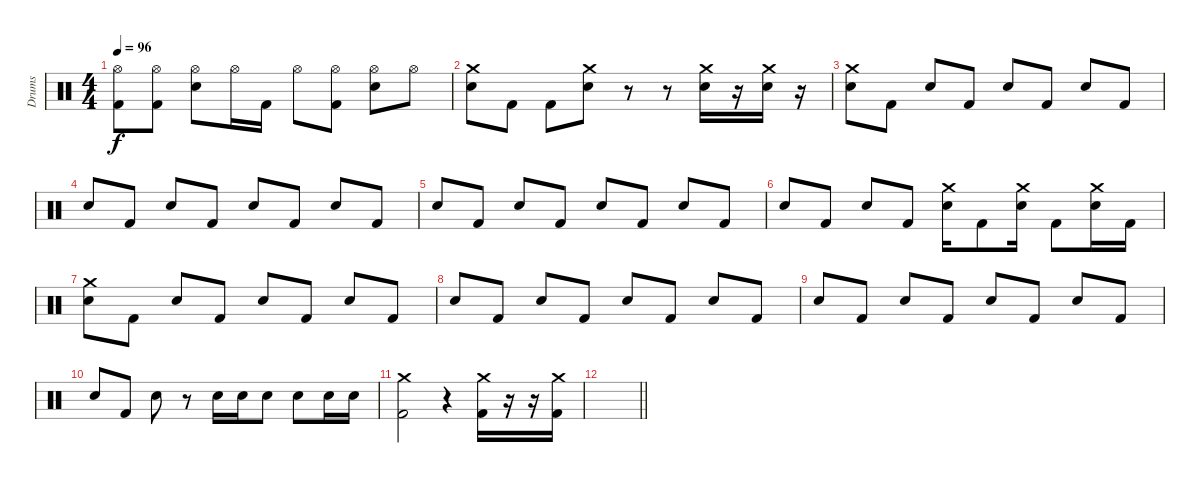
\track ("Drums" "Drums") {instrument percussion}
\staff {score}
\articulation defaults
\ts (4 4)
\tempo 96
\clef neutral
\ks c
("Hi-Hat (open)" "Kick (hit) 2").8{dy f} ("Hi-Hat (open)" "Kick (hit) 2").8 ("Hi-Hat (open)" "Snare (hit) 2").8 "Hi-Hat (open)".16 "Kick (hit) 2".16 "Hi-Hat (open)".8 ("Hi-Hat (open)" "Kick (hit) 2").8 ("Hi-Hat (open)" "Snare (hit) 2").8 "Hi-Hat (open)".8 |
("Crash medium (hit)" "Snare (hit) 2").8 "Kick (hit) 2".8 "Kick (hit) 2".8 ("Crash medium (hit)" "Snare (hit) 2").8 r.8 r.8 ("Crash medium (hit)" "Snare (hit) 2").16 r.16 ("Crash medium (hit)" "Snare (hit) 2").16 r.16 |
("Crash medium (hit)" "Snare (hit) 2").8 "Kick (hit) 2".8 "Snare (hit) 2".8 "Kick (hit) 2".8 "Snare (hit) 2".8 "Kick (hit) 2".8 "Snare (hit) 2".8 "Kick (hit) 2".8 |
"Snare (hit) 2".8 "Kick (hit) 2".8 "Snare (hit) 2".8 "Kick (hit) 2".8 "Snare (hit) 2".8 "Kick (hit) 2".8 "Snare (hit) 2".8 "Kick (hit) 2".8 |
"Snare (hit) 2".8 "Kick (hit) 2".8 "Snare (hit) 2".8 "Kick (hit) 2".8 "Snare (hit) 2".8 "Kick (hit) 2".8 "Snare (hit) 2".8 "Kick (hit) 2".8 |
"Snare (hit) 2".8 "Kick (hit) 2".8 "Snare (hit) 2".8 "Kick (hit) 2".8 ("Crash medium (hit)" "Snare (hit) 2").16 "Kick (hit) 2".8 ("Crash medium (hit)" "Snare (hit) 2").16 "Kick (hit) 2".8 ("Crash medium (hit)" "Snare (hit) 2").16 "Kick (hit) 2".16 |
("Crash medium (hit)" "Snare (hit) 2").8 "Kick (hit) 2".8 "Snare (hit) 2".8 "Kick (hit) 2".8 "Snare (hit) 2".8 "Kick (hit) 2".8 "Snare (hit) 2".8 "Kick (hit) 2".8 |
"Snare (hit) 2".8 "Kick (hit) 2".8 "Snare (hit) 2".8 "Kick (hit) 2".8 "Snare (hit) 2".8 "Kick (hit) 2".8 "Snare (hit) 2".8 "Kick (hit) 2".8 |
"Snare (hit) 2".8 "Kick (hit) 2".8 "Snare (hit) 2".8 "Kick (hit) 2".8 "Snare (hit) 2".8 "Kick (hit) 2".8 "Snare (hit) 2".8 "Kick (hit) 2".8 |
"Snare (hit) 2".8 "Kick (hit) 2".8 "Snare (hit) 2".8 r.8 "Snare (hit) 2".16 "Snare (hit) 2".16 "Snare (hit) 2".8 "Snare (hit) 2".8 "Snare (hit) 2".16 "Snare (hit) 2".16 |
("Crash medium (hit)" "Kick (hit) 2").2 r.4 ("Crash medium (hit)" "Kick (hit) 2").16 r.16 r.16 ("Crash medium (hit)" "Kick (hit) 2").16 |
\barLineRight lightlight
